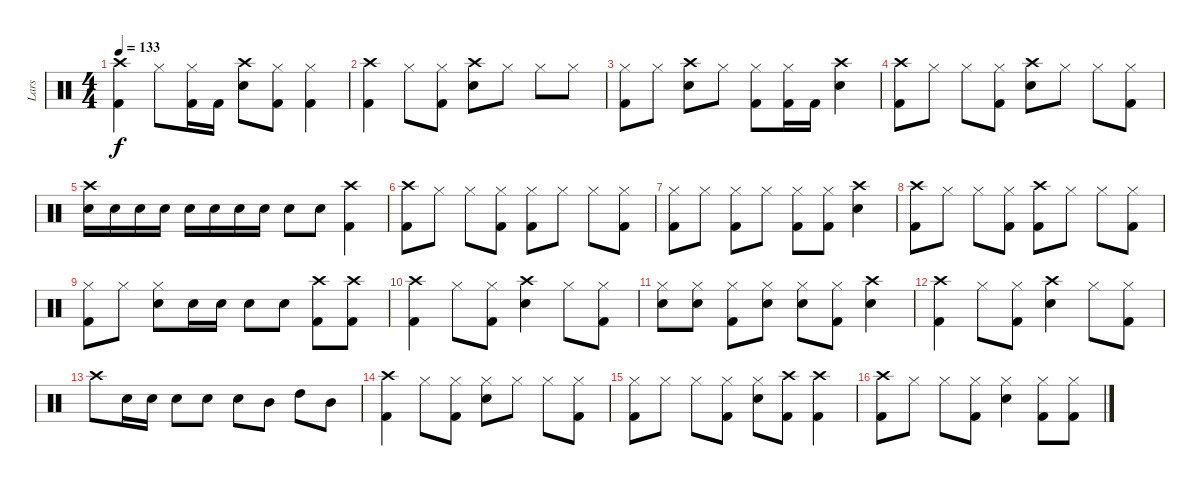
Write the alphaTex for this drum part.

\track ("Lars" "Lars") {instrument percussion}
\staff {score}
\articulation defaults
\ts (4 4)
\tempo 133
\clef neutral
\ks c
("Crash high (hit)" "Kick (hit) 2").4{dy f} "Hi-Hat (closed)".8 ("Hi-Hat (closed)" "Kick (hit) 2").16 "Kick (hit) 2".16 ("Crash high (hit)" "Electric Snare (hit)").8 ("Hi-Hat (closed)" "Kick (hit) 2").8 ("Hi-Hat (closed)" "Kick (hit) 2").4 |
("Crash high (hit)" "Kick (hit) 2").4 "Hi-Hat (closed)".8 ("Hi-Hat (closed)" "Kick (hit) 2").8 ("Crash high (hit)" "Electric Snare (hit)").8 "Hi-Hat (closed)".8 "Hi-Hat (closed)".8 "Hi-Hat (closed)".8 |
("Hi-Hat (closed)" "Kick (hit) 2").8 "Hi-Hat (closed)".8 ("Electric Snare (hit)" "Crash high (hit)").8 "Hi-Hat (closed)".8 ("Hi-Hat (closed)" "Kick (hit) 2").8 ("Hi-Hat (closed)" "Kick (hit) 2").16 "Kick (hit) 2".16 ("Crash high (hit)" "Electric Snare (hit)").4 |
("Kick (hit) 2" "Crash high (hit)").8 "Hi-Hat (closed)".8 "Hi-Hat (closed)".8 ("Hi-Hat (closed)" "Kick (hit) 2").8 ("Crash high (hit)" "Electric Snare (hit)").8 "Hi-Hat (closed)".8 "Hi-Hat (closed)".8 ("Hi-Hat (closed)" "Kick (hit) 2").8 |
("Crash high (hit)" "Electric Snare (hit)").16 "Electric Snare (hit)".16 "Electric Snare (hit)".16 "Electric Snare (hit)".16 "Electric Snare (hit)".16 "Electric Snare (hit)".16 "Electric Snare (hit)".16 "Electric Snare (hit)".16 "Electric Snare (hit)".8 "Electric Snare (hit)".8 ("Crash high (hit)" "Kick (hit) 2").4 |
("Crash high (hit)" "Kick (hit) 2").8 "Hi-Hat (closed)".8 "Hi-Hat (closed)".8 ("Hi-Hat (closed)" "Kick (hit) 2").8 ("Hi-Hat (closed)" "Kick (hit) 2").8 "Hi-Hat (closed)".8 "Hi-Hat (closed)".8 ("Hi-Hat (closed)" "Kick (hit) 2").8 |
("Hi-Hat (closed)" "Kick (hit) 2").8 "Hi-Hat (closed)".8 ("Hi-Hat (closed)" "Kick (hit) 2").8 "Hi-Hat (closed)".8 ("Hi-Hat (closed)" "Kick (hit) 2").8 ("Hi-Hat (closed)" "Kick (hit) 2").8 ("Crash high (hit)" "Electric Snare (hit)").4 |
("Crash high (hit)" "Kick (hit) 2").8 "Hi-Hat (closed)".8 "Hi-Hat (closed)".8 ("Hi-Hat (closed)" "Kick (hit) 2").8 ("Crash high (hit)" "Kick (hit) 2").8 "Hi-Hat (closed)".8 "Hi-Hat (closed)".8 ("Hi-Hat (closed)" "Kick (hit) 2").8 |
("Hi-Hat (closed)" "Kick (hit) 2").8 "Hi-Hat (closed)".8 ("Hi-Hat (closed)" "Electric Snare (hit)").8 "Electric Snare (hit)".16 "Electric Snare (hit)".16 "Electric Snare (hit)".8 "Electric Snare (hit)".8 ("Crash high (hit)" "Kick (hit) 2").8 ("Crash high (hit)" "Kick (hit) 2").8 |
("Crash high (hit)" "Kick (hit) 2").4 "Hi-Hat (closed)".8 ("Hi-Hat (closed)" "Kick (hit) 2").8 ("Crash high (hit)" "Electric Snare (hit)").4 "Hi-Hat (closed)".8 ("Hi-Hat (closed)" "Kick (hit) 2").8 |
("Hi-Hat (closed)" "Electric Snare (hit)").8 ("Hi-Hat (closed)" "Electric Snare (hit)").8 ("Hi-Hat (closed)" "Kick (hit) 2").8 ("Hi-Hat (closed)" "Electric Snare (hit)").8 ("Hi-Hat (closed)" "Electric Snare (hit)").8 ("Hi-Hat (closed)" "Kick (hit) 2").8 ("Crash high (hit)" "Electric Snare (hit)").4 |
("Crash high (hit)" "Kick (hit) 2").4 "Hi-Hat (closed)".8 ("Hi-Hat (closed)" "Kick (hit) 2").8 ("Crash high (hit)" "Electric Snare (hit)").4 "Hi-Hat (closed)".8 ("Hi-Hat (closed)" "Kick (hit) 2").8 |
"Crash high (hit)".8 "Electric Snare (hit)".16 "Electric Snare (hit)".16 "Electric Snare (hit)".8 "Electric Snare (hit)".8 "Electric Snare (hit)".8 "Mid Tom (hit)".8 "High Tom (hit)".8 "Mid Tom (hit)".8 |
("Crash high (hit)" "Kick (hit) 2").4 "Hi-Hat (closed)".8 ("Hi-Hat (closed)" "Kick (hit) 2").8 ("Hi-Hat (closed)" "Electric Snare (hit)").8 "Hi-Hat (closed)".8 "Hi-Hat (closed)".8 ("Hi-Hat (closed)" "Kick (hit) 2").8 |
("Hi-Hat (closed)" "Kick (hit) 2").8 "Hi-Hat (closed)".8 "Hi-Hat (closed)".8 ("Hi-Hat (closed)" "Kick (hit) 2").8 ("Hi-Hat (closed)" "Electric Snare (hit)").8 ("Crash high (hit)" "Kick (hit) 2").8 ("Crash high (hit)" "Kick (hit) 2").4 |
("Crash high (hit)" "Kick (hit) 2").8 "Hi-Hat (closed)".8 "Hi-Hat (closed)".8 ("Hi-Hat (closed)" "Kick (hit) 2").8 ("Hi-Hat (closed)" "Electric Snare (hit)").4 ("Hi-Hat (closed)" "Kick (hit) 2").8 ("Hi-Hat (closed)" "Kick (hit) 2").8
